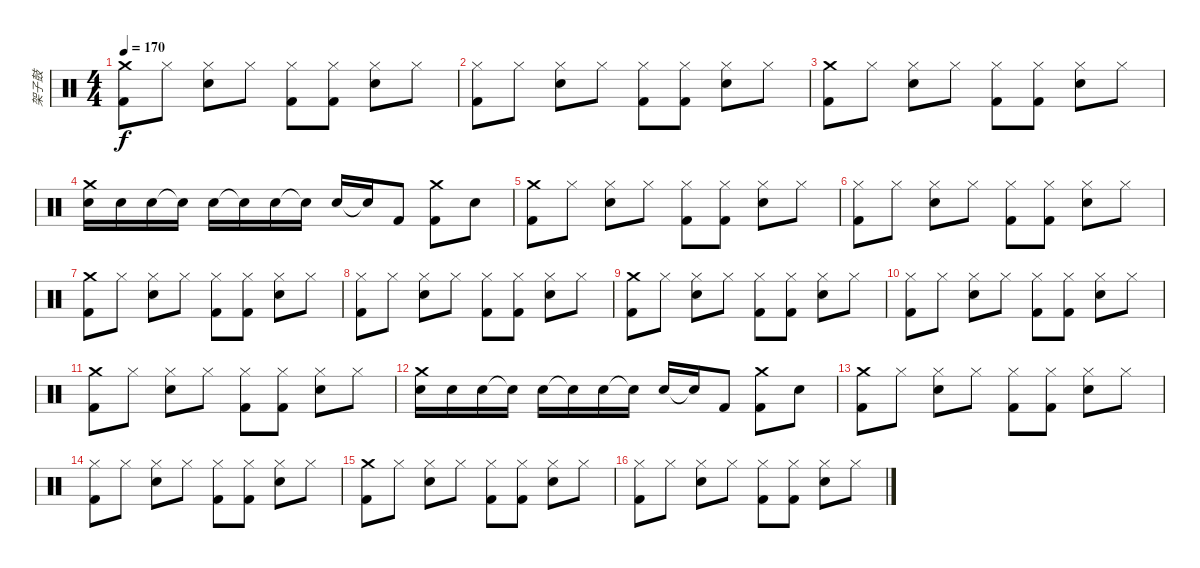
\track ("架子鼓" "架子鼓") {instrument percussion}
\staff {score}
\articulation defaults
\ts (4 4)
\tempo 170
\clef neutral
\ks c
("Crash medium (hit)" "Kick (hit) 2").8{dy f} "Hi-Hat (closed)".8 ("Hi-Hat (closed)" "Snare (hit) 2").8 "Hi-Hat (closed)".8 ("Hi-Hat (closed)" "Kick (hit) 2").8 ("Hi-Hat (closed)" "Kick (hit) 2").8 ("Hi-Hat (closed)" "Snare (hit) 2").8 "Hi-Hat (closed)".8 |
("Hi-Hat (closed)" "Kick (hit) 2").8 "Hi-Hat (closed)".8 ("Hi-Hat (closed)" "Snare (hit) 2").8 "Hi-Hat (closed)".8 ("Hi-Hat (closed)" "Kick (hit) 2").8 ("Hi-Hat (closed)" "Kick (hit) 2").8 ("Hi-Hat (closed)" "Snare (hit) 2").8 "Hi-Hat (closed)".8 |
("Crash medium (hit)" "Kick (hit) 2").8 "Hi-Hat (closed)".8 ("Hi-Hat (closed)" "Snare (hit) 2").8 "Hi-Hat (closed)".8 ("Hi-Hat (closed)" "Kick (hit) 2").8 ("Hi-Hat (closed)" "Kick (hit) 2").8 ("Hi-Hat (closed)" "Snare (hit) 2").8 "Hi-Hat (closed)".8 |
("Crash medium (hit)" "Snare (hit) 2").16 "Snare (hit) 2".16 "Snare (hit) 2".16 "Snare (hit)"{t}.16 "Snare (hit) 2".16 "Snare (hit)"{t}.16 "Snare (hit) 2".16 "Snare (hit)"{t}.16 "Snare (hit) 2".16 "Snare (hit)"{t}.16 "Kick (hit) 2".8 ("Crash medium (hit)" "Kick (hit) 2").8 "Snare (hit) 2".8 |
("Crash medium (hit)" "Kick (hit) 2").8 "Hi-Hat (closed)".8 ("Hi-Hat (closed)" "Snare (hit) 2").8 "Hi-Hat (closed)".8 ("Hi-Hat (closed)" "Kick (hit) 2").8 ("Hi-Hat (closed)" "Kick (hit) 2").8 ("Hi-Hat (closed)" "Snare (hit) 2").8 "Hi-Hat (closed)".8 |
("Hi-Hat (closed)" "Kick (hit) 2").8 "Hi-Hat (closed)".8 ("Hi-Hat (closed)" "Snare (hit) 2").8 "Hi-Hat (closed)".8 ("Hi-Hat (closed)" "Kick (hit) 2").8 ("Hi-Hat (closed)" "Kick (hit) 2").8 ("Hi-Hat (closed)" "Snare (hit) 2").8 "Hi-Hat (closed)".8 |
("Crash medium (hit)" "Kick (hit) 2").8 "Hi-Hat (closed)".8 ("Hi-Hat (closed)" "Snare (hit) 2").8 "Hi-Hat (closed)".8 ("Hi-Hat (closed)" "Kick (hit) 2").8 ("Hi-Hat (closed)" "Kick (hit) 2").8 ("Hi-Hat (closed)" "Snare (hit) 2").8 "Hi-Hat (closed)".8 |
("Hi-Hat (closed)" "Kick (hit) 2").8 "Hi-Hat (closed)".8 ("Hi-Hat (closed)" "Snare (hit) 2").8 "Hi-Hat (closed)".8 ("Hi-Hat (closed)" "Kick (hit) 2").8 ("Hi-Hat (closed)" "Kick (hit) 2").8 ("Hi-Hat (closed)" "Snare (hit) 2").8 "Hi-Hat (closed)".8 |
("Crash medium (hit)" "Kick (hit) 2").8 "Hi-Hat (closed)".8 ("Hi-Hat (closed)" "Snare (hit) 2").8 "Hi-Hat (closed)".8 ("Hi-Hat (closed)" "Kick (hit) 2").8 ("Hi-Hat (closed)" "Kick (hit) 2").8 ("Hi-Hat (closed)" "Snare (hit) 2").8 "Hi-Hat (closed)".8 |
("Hi-Hat (closed)" "Kick (hit) 2").8 "Hi-Hat (closed)".8 ("Hi-Hat (closed)" "Snare (hit) 2").8 "Hi-Hat (closed)".8 ("Hi-Hat (closed)" "Kick (hit) 2").8 ("Hi-Hat (closed)" "Kick (hit) 2").8 ("Hi-Hat (closed)" "Snare (hit) 2").8 "Hi-Hat (closed)".8 |
("Crash medium (hit)" "Kick (hit) 2").8 "Hi-Hat (closed)".8 ("Hi-Hat (closed)" "Snare (hit) 2").8 "Hi-Hat (closed)".8 ("Hi-Hat (closed)" "Kick (hit) 2").8 ("Hi-Hat (closed)" "Kick (hit) 2").8 ("Hi-Hat (closed)" "Snare (hit) 2").8 "Hi-Hat (closed)".8 |
("Crash medium (hit)" "Snare (hit) 2").16 "Snare (hit) 2".16 "Snare (hit) 2".16 "Snare (hit)"{t}.16 "Snare (hit) 2".16 "Snare (hit)"{t}.16 "Snare (hit) 2".16 "Snare (hit)"{t}.16 "Snare (hit) 2".16 "Snare (hit)"{t}.16 "Kick (hit) 2".8 ("Crash medium (hit)" "Kick (hit) 2").8 "Snare (hit) 2".8 |
("Crash medium (hit)" "Kick (hit) 2").8 "Hi-Hat (closed)".8 ("Hi-Hat (closed)" "Snare (hit) 2").8 "Hi-Hat (closed)".8 ("Hi-Hat (closed)" "Kick (hit) 2").8 ("Hi-Hat (closed)" "Kick (hit) 2").8 ("Hi-Hat (closed)" "Snare (hit) 2").8 "Hi-Hat (closed)".8 |
("Hi-Hat (closed)" "Kick (hit) 2").8 "Hi-Hat (closed)".8 ("Hi-Hat (closed)" "Snare (hit) 2").8 "Hi-Hat (closed)".8 ("Hi-Hat (closed)" "Kick (hit) 2").8 ("Hi-Hat (closed)" "Kick (hit) 2").8 ("Hi-Hat (closed)" "Snare (hit) 2").8 "Hi-Hat (closed)".8 |
("Crash medium (hit)" "Kick (hit) 2").8 "Hi-Hat (closed)".8 ("Hi-Hat (closed)" "Snare (hit) 2").8 "Hi-Hat (closed)".8 ("Hi-Hat (closed)" "Kick (hit) 2").8 ("Hi-Hat (closed)" "Kick (hit) 2").8 ("Hi-Hat (closed)" "Snare (hit) 2").8 "Hi-Hat (closed)".8 |
("Hi-Hat (closed)" "Kick (hit) 2").8 "Hi-Hat (closed)".8 ("Hi-Hat (closed)" "Snare (hit) 2").8 "Hi-Hat (closed)".8 ("Hi-Hat (closed)" "Kick (hit) 2").8 ("Hi-Hat (closed)" "Kick (hit) 2").8 ("Hi-Hat (closed)" "Snare (hit) 2").8 "Hi-Hat (closed)".8
